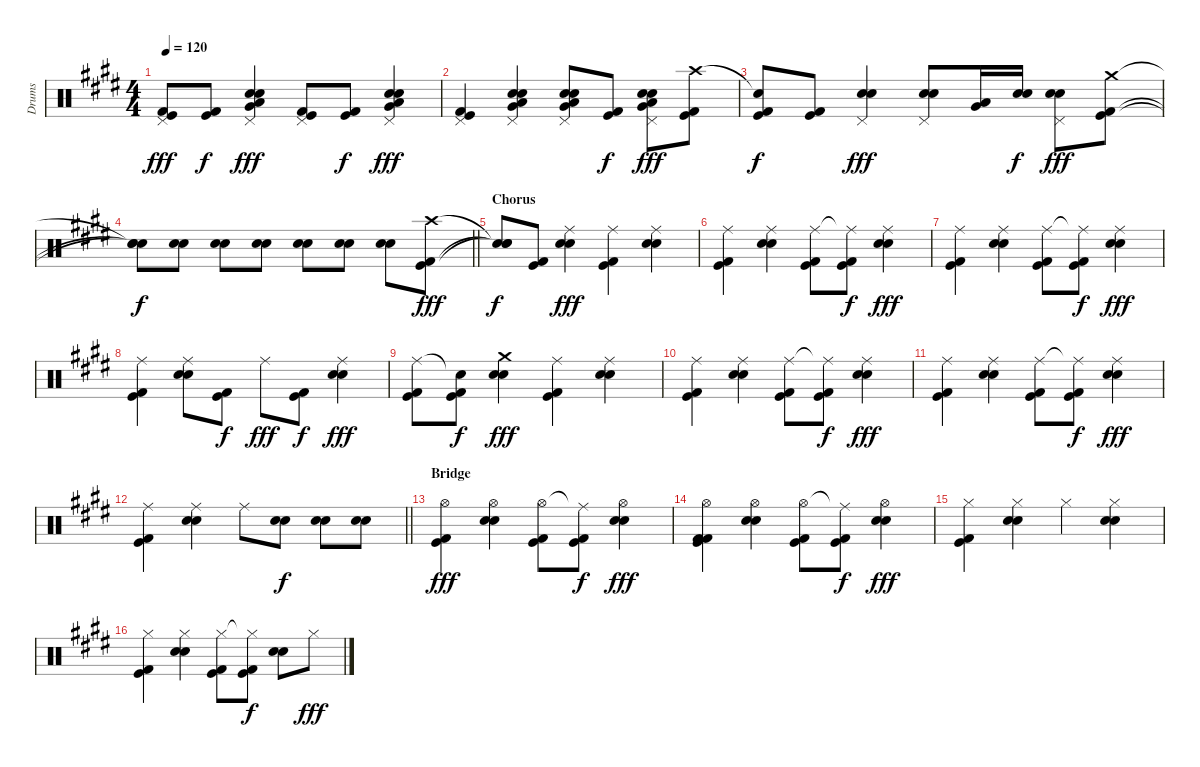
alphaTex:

\track ("Drums" "Drums") {instrument percussion}
\staff {score}
\articulation defaults
\ts (4 4)
\tempo 120
\clef neutral
\ks e
("Pedal Hi-Hat (hit)" "Kick (hit)" "Kick (hit) 2").8{dy fff} ("Kick (hit)" "Kick (hit) 2").8{dy f} ("Pedal Hi-Hat (hit)" "Snare (hit) 2" "Electric Snare (hit)" "Very Low Tom (hit)" "Low Floor Tom (hit)").4{dy fff} ("Pedal Hi-Hat (hit)" "Kick (hit)" "Kick (hit) 2").8 ("Kick (hit)" "Kick (hit) 2").8{dy f} ("Pedal Hi-Hat (hit)" "Electric Snare (hit)" "Snare (hit) 2" "Very Low Tom (hit)" "Low Floor Tom (hit)").4{dy fff} |
("Pedal Hi-Hat (hit)" "Kick (hit)" "Kick (hit) 2").4 ("Pedal Hi-Hat (hit)" "Electric Snare (hit)" "Snare (hit) 2" "Very Low Tom (hit)" "Low Floor Tom (hit)").4 ("Pedal Hi-Hat (hit)" "Electric Snare (hit)" "Snare (hit) 2" "Very Low Tom (hit)" "Low Floor Tom (hit)").8 ("Kick (hit)" "Kick (hit) 2").8{dy f} ("Pedal Hi-Hat (hit)" "Electric Snare (hit)" "Snare (hit) 2" "Very Low Tom (hit)" "Low Floor Tom (hit)").8{dy fff} ("Crash high (hit)" "Kick (hit)" "Kick (hit) 2").8 |
("Snare (hit)"{t} "Kick (hit)" "Kick (hit) 2").8{dy f} ("Kick (hit)" "Kick (hit) 2").8 ("Pedal Hi-Hat (hit)" "Electric Snare (hit)" "Snare (hit) 2").4{dy fff} ("Pedal Hi-Hat (hit)" "Electric Snare (hit)" "Snare (hit) 2").8 ("Very Low Tom (hit)" "Low Floor Tom (hit)").16 ("Electric Snare (hit)" "Snare (hit) 2").16{dy f} ("Pedal Hi-Hat (hit)" "Electric Snare (hit)" "Snare (hit) 2").8{dy fff} ("Crash medium (hit)" "Kick (hit)" "Kick (hit) 2").8 |
\barLineRight lightlight
("Snare (hit)"{t} "Snare (hit)"{t} "Snare (hit)"{t}).8{dy f} ("Electric Snare (hit)" "Snare (hit) 2").8 ("Electric Snare (hit)" "Snare (hit) 2").8 ("Electric Snare (hit)" "Snare (hit) 2").8 ("Electric Snare (hit)" "Snare (hit) 2").8 ("Electric Snare (hit)" "Snare (hit) 2").8 ("Electric Snare (hit)" "Snare (hit) 2").8 ("Crash high (hit)" "Kick (hit)" "Kick (hit) 2").8{dy fff} |
\section ("" "Chorus")
("Snare (hit)"{t} "Snare (hit)"{t} "Snare (hit)"{t}).8{dy f} ("Kick (hit)" "Kick (hit) 2").8 ("Ride (middle)" "Electric Snare (hit)" "Snare (hit) 2").4{dy fff} ("Ride (middle)" "Kick (hit)" "Kick (hit) 2").4 ("Ride (middle)" "Electric Snare (hit)" "Snare (hit) 2").4 |
("Ride (middle)" "Kick (hit)" "Kick (hit) 2").4 ("Ride (middle)" "Electric Snare (hit)" "Snare (hit) 2").4 ("Ride (middle)" "Kick (hit)" "Kick (hit) 2").8 ("Ride (middle)"{t} "Kick (hit)" "Kick (hit) 2").8{dy f} ("Ride (middle)" "Electric Snare (hit)" "Snare (hit) 2").4{dy fff} |
("Ride (middle)" "Kick (hit)" "Kick (hit) 2").4 ("Ride (middle)" "Electric Snare (hit)" "Snare (hit) 2").4 ("Ride (middle)" "Kick (hit)" "Kick (hit) 2").8 ("Ride (middle)"{t} "Kick (hit)" "Kick (hit) 2").8{dy f} ("Ride (middle)" "Electric Snare (hit)" "Snare (hit) 2").4{dy fff} |
("Ride (middle)" "Kick (hit)" "Kick (hit) 2").4 ("Ride (middle)" "Electric Snare (hit)" "Snare (hit) 2").8 ("Kick (hit)" "Kick (hit) 2").8{dy f} "Ride (middle)".8{dy fff} ("Kick (hit) 2" "Kick (hit)").8{dy f} ("Ride (middle)" "Electric Snare (hit)" "Snare (hit) 2").4{dy fff} |
("Ride (middle)" "Kick (hit)" "Kick (hit) 2").8 ("Snare (hit)"{t} "Kick (hit)" "Kick (hit) 2").8{dy f} ("Crash medium (hit)" "Electric Snare (hit)" "Snare (hit) 2").4{dy fff} ("Ride (middle)" "Kick (hit)" "Kick (hit) 2").4 ("Ride (middle)" "Electric Snare (hit)" "Snare (hit) 2").4 |
("Ride (middle)" "Kick (hit)" "Kick (hit) 2").4 ("Ride (middle)" "Electric Snare (hit)" "Snare (hit) 2").4 ("Ride (middle)" "Kick (hit)" "Kick (hit) 2").8 ("Ride (middle)"{t} "Kick (hit)" "Kick (hit) 2").8{dy f} ("Ride (middle)" "Electric Snare (hit)" "Snare (hit) 2").4{dy fff} |
("Ride (middle)" "Kick (hit)" "Kick (hit) 2").4 ("Ride (middle)" "Electric Snare (hit)" "Snare (hit) 2").4 ("Ride (middle)" "Kick (hit)" "Kick (hit) 2").8 ("Ride (middle)"{t} "Kick (hit)" "Kick (hit) 2").8{dy f} ("Ride (middle)" "Electric Snare (hit)" "Snare (hit) 2").4{dy fff} |
\barLineRight lightlight
("Ride (middle)" "Kick (hit)" "Kick (hit) 2").4 ("Ride (middle)" "Electric Snare (hit)" "Snare (hit) 2").4 "Ride (middle)".8 ("Electric Snare (hit)" "Snare (hit) 2").8{dy f} ("Electric Snare (hit)" "Snare (hit) 2").8 ("Electric Snare (hit)" "Snare (hit) 2").8 |
\section ("" "Bridge")
("Hi-Hat (open)" "Kick (hit)" "Kick (hit) 2").4{dy fff} ("Hi-Hat (open)" "Electric Snare (hit)" "Snare (hit) 2").4 ("Hi-Hat (open)" "Kick (hit)" "Kick (hit) 2").8 ("Ride (middle)"{t} "Kick (hit)" "Kick (hit) 2").8{dy f} ("Hi-Hat (open)" "Electric Snare (hit)" "Snare (hit) 2").4{dy fff} |
("Hi-Hat (open)" "Kick (hit) 2" "Kick (hit)" "Kick (hit) 2").4 ("Hi-Hat (open)" "Electric Snare (hit)" "Snare (hit) 2").4 ("Hi-Hat (open)" "Kick (hit)" "Kick (hit) 2").8 ("Ride (middle)"{t} "Kick (hit)" "Kick (hit) 2").8{dy f} ("Hi-Hat (open)" "Electric Snare (hit)" "Snare (hit) 2").4{dy fff} |
("Hi-Hat (closed)" "Kick (hit)" "Kick (hit) 2").4 ("Hi-Hat (closed)" "Electric Snare (hit)" "Snare (hit) 2").4 "Hi-Hat (closed)".4 ("Hi-Hat (closed)" "Electric Snare (hit)" "Snare (hit) 2").4 |
("Hi-Hat (closed)" "Kick (hit)" "Kick (hit) 2").4 ("Hi-Hat (closed)" "Electric Snare (hit)" "Snare (hit) 2").4 ("Hi-Hat (closed)" "Kick (hit)" "Kick (hit) 2").8 ("Hi-Hat (closed)"{t} "Kick (hit)" "Kick (hit) 2").8{dy f} ("Electric Snare (hit)" "Snare (hit) 2").8 "Hi-Hat (closed)".8{dy fff}
